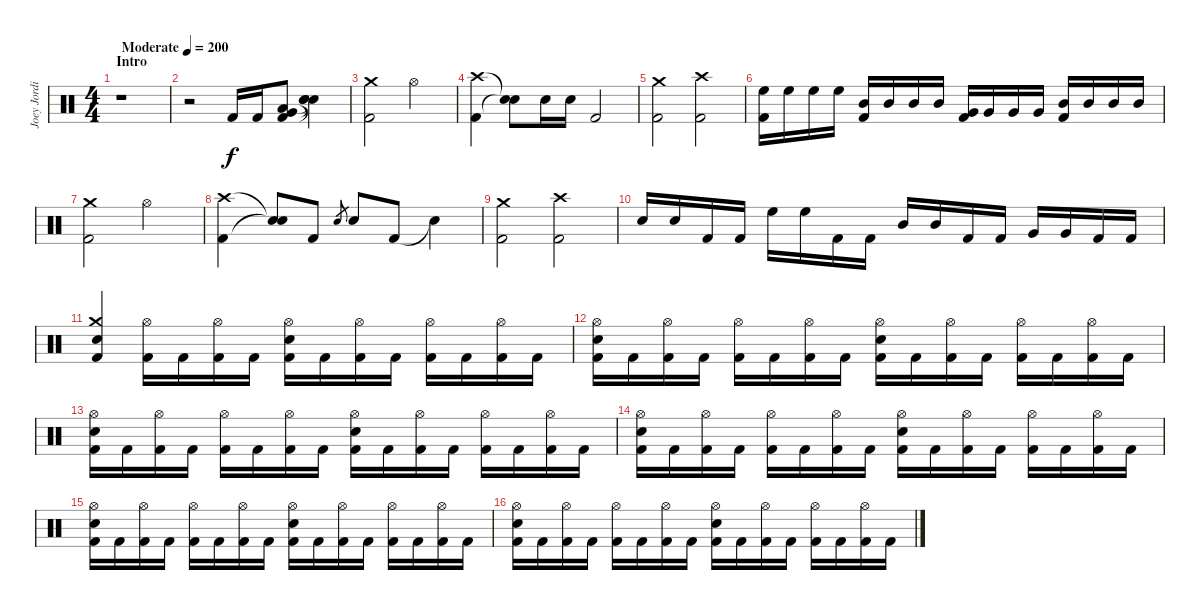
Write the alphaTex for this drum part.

\track ("Joey Jordison" "Joey Jordi") {instrument percussion}
\staff {score}
\articulation defaults
\ts (4 4)
\section ("" "Intro")
\tempo (200 "Moderate")
\clef neutral
\ks c
r.1{dy f} |
r.2 "Kick (hit) 2".16 "Kick (hit) 2".16 ("Very Low Tom (hit)" "Low Floor Tom (hit)" "Kick (hit) 2").8 ("Snare (hit)"{t} "Snare (hit)"{t} "Snare (hit)"{t}).4 |
("Crash medium (hit)" "Kick (hit) 2").2 "Hi-Hat (open)".2 |
("Crash high (hit)" "Kick (hit) 2").4 ("Snare (hit)"{t} "Snare (hit)"{t}).8 "Electric Snare (hit)".16 "Electric Snare (hit)".16 "Kick (hit) 2".2 |
("Crash medium (hit)" "Kick (hit) 2").2 ("Crash high (hit)" "Kick (hit) 2").2 |
("High Floor Tom (hit)" "Kick (hit) 2").16 "High Floor Tom (hit)".16 "High Floor Tom (hit)".16 "High Floor Tom (hit)".16 ("Mid Tom (hit)" "Kick (hit) 2").16 "Mid Tom (hit)".16 "Mid Tom (hit)".16 "Mid Tom (hit)".16 ("Very Low Tom (hit)" "Kick (hit) 2").16 "Very Low Tom (hit)".16 "Very Low Tom (hit)".16 "Very Low Tom (hit)".16 ("Mid Tom (hit)" "Kick (hit) 2").16 "Mid Tom (hit)".16 "Mid Tom (hit)".16 "Mid Tom (hit)".16 |
("Crash medium (hit)" "Kick (hit) 2").2 "Hi-Hat (open)".2 |
("Crash high (hit)" "Kick (hit) 2").4 ("Snare (hit)"{t} "Snare (hit)"{t}).8 "Kick (hit) 2".8 "Electric Snare (hit)".8{gr} "Electric Snare (hit)".8 "Kick (hit) 2".8 "Snare (hit)"{t}.4 |
("Crash medium (hit)" "Kick (hit) 2").2 ("Crash high (hit)" "Kick (hit) 2").2 |
"Electric Snare (hit)".16 "Electric Snare (hit)".16 "Kick (hit) 2".16 "Kick (hit) 2".16 "High Floor Tom (hit)".16 "High Floor Tom (hit)".16 "Kick (hit) 2".16 "Kick (hit) 2".16 "Mid Tom (hit)".16 "Mid Tom (hit)".16 "Kick (hit) 2".16 "Kick (hit) 2".16 "Very Low Tom (hit)".16 "Very Low Tom (hit)".16 "Kick (hit) 2".16 "Kick (hit) 2".16 |
("Crash medium (hit)" "Electric Snare (hit)" "Kick (hit) 2").4 ("Hi-Hat (open)" "Kick (hit) 2").16 "Kick (hit) 2".16 ("Hi-Hat (open)" "Kick (hit) 2").16 "Kick (hit) 2".16 ("Hi-Hat (open)" "Electric Snare (hit)" "Kick (hit) 2").16 "Kick (hit) 2".16 ("Hi-Hat (open)" "Kick (hit) 2").16 "Kick (hit) 2".16 ("Hi-Hat (open)" "Kick (hit) 2").16 "Kick (hit) 2".16 ("Hi-Hat (open)" "Kick (hit) 2").16 "Kick (hit) 2".16 |
("Hi-Hat (open)" "Electric Snare (hit)" "Kick (hit) 2").16 "Kick (hit) 2".16 ("Hi-Hat (open)" "Kick (hit) 2").16 "Kick (hit) 2".16 ("Hi-Hat (open)" "Kick (hit) 2").16 "Kick (hit) 2".16 ("Hi-Hat (open)" "Kick (hit) 2").16 "Kick (hit) 2".16 ("Hi-Hat (open)" "Electric Snare (hit)" "Kick (hit) 2").16 "Kick (hit) 2".16 ("Hi-Hat (open)" "Kick (hit) 2").16 "Kick (hit) 2".16 ("Hi-Hat (open)" "Kick (hit) 2").16 "Kick (hit) 2".16 ("Hi-Hat (open)" "Kick (hit) 2").16 "Kick (hit) 2".16 |
("Hi-Hat (open)" "Electric Snare (hit)" "Kick (hit) 2").16 "Kick (hit) 2".16 ("Hi-Hat (open)" "Kick (hit) 2").16 "Kick (hit) 2".16 ("Hi-Hat (open)" "Kick (hit) 2").16 "Kick (hit) 2".16 ("Hi-Hat (open)" "Kick (hit) 2").16 "Kick (hit) 2".16 ("Hi-Hat (open)" "Electric Snare (hit)" "Kick (hit) 2").16 "Kick (hit) 2".16 ("Hi-Hat (open)" "Kick (hit) 2").16 "Kick (hit) 2".16 ("Hi-Hat (open)" "Kick (hit) 2").16 "Kick (hit) 2".16 ("Hi-Hat (open)" "Kick (hit) 2").16 "Kick (hit) 2".16 |
("Hi-Hat (open)" "Electric Snare (hit)" "Kick (hit) 2").16 "Kick (hit) 2".16 ("Hi-Hat (open)" "Kick (hit) 2").16 "Kick (hit) 2".16 ("Hi-Hat (open)" "Kick (hit) 2").16 "Kick (hit) 2".16 ("Hi-Hat (open)" "Kick (hit) 2").16 "Kick (hit) 2".16 ("Hi-Hat (open)" "Electric Snare (hit)" "Kick (hit) 2").16 "Kick (hit) 2".16 ("Hi-Hat (open)" "Kick (hit) 2").16 "Kick (hit) 2".16 ("Hi-Hat (open)" "Kick (hit) 2").16 "Kick (hit) 2".16 ("Hi-Hat (open)" "Kick (hit) 2").16 "Kick (hit) 2".16 |
("Hi-Hat (open)" "Electric Snare (hit)" "Kick (hit) 2").16 "Kick (hit) 2".16 ("Hi-Hat (open)" "Kick (hit) 2").16 "Kick (hit) 2".16 ("Hi-Hat (open)" "Kick (hit) 2").16 "Kick (hit) 2".16 ("Hi-Hat (open)" "Kick (hit) 2").16 "Kick (hit) 2".16 ("Hi-Hat (open)" "Electric Snare (hit)" "Kick (hit) 2").16 "Kick (hit) 2".16 ("Hi-Hat (open)" "Kick (hit) 2").16 "Kick (hit) 2".16 ("Hi-Hat (open)" "Kick (hit) 2").16 "Kick (hit) 2".16 ("Hi-Hat (open)" "Kick (hit) 2").16 "Kick (hit) 2".16 |
("Hi-Hat (open)" "Electric Snare (hit)" "Kick (hit) 2").16 "Kick (hit) 2".16 ("Hi-Hat (open)" "Kick (hit) 2").16 "Kick (hit) 2".16 ("Hi-Hat (open)" "Kick (hit) 2").16 "Kick (hit) 2".16 ("Hi-Hat (open)" "Kick (hit) 2").16 "Kick (hit) 2".16 ("Hi-Hat (open)" "Electric Snare (hit)" "Kick (hit) 2").16 "Kick (hit) 2".16 ("Hi-Hat (open)" "Kick (hit) 2").16 "Kick (hit) 2".16 ("Hi-Hat (open)" "Kick (hit) 2").16 "Kick (hit) 2".16 ("Hi-Hat (open)" "Kick (hit) 2").16 "Kick (hit) 2".16
